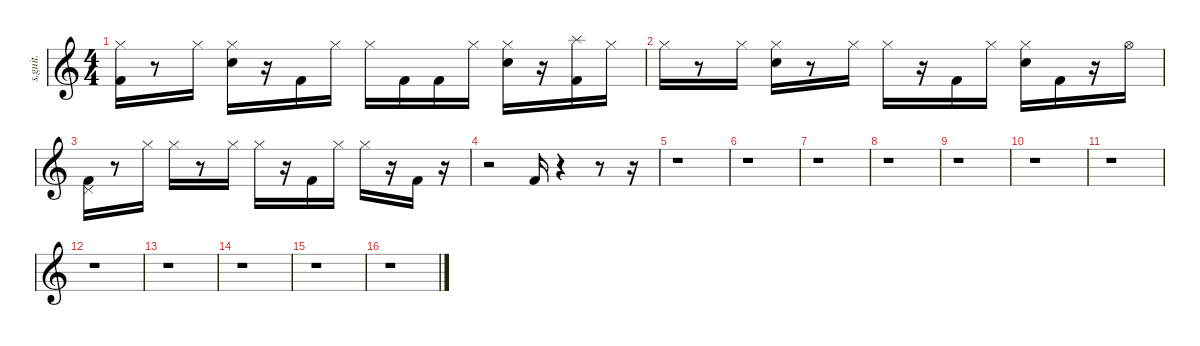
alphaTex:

\defaultSystemsLayout 4
\hideDynamics
\bracketExtendMode nobrackets
\track ("Drums" "s.guit.") {instrument percussion}
\staff {score}
\articulation defaults
\ts (4 4)
\tempo (130 hide)
\clef g2
\ks c
("Kick (hit) 2" "Hi-Hat (closed)").16{dy f} r.8 "Hi-Hat (closed)".16{dy mf} ("Electric Snare (hit)" "Hi-Hat (closed)").16{dy f} r.16 "Kick (hit) 2".16{dy mf} "Hi-Hat (closed)".16 "Hi-Hat (closed)".16{dy ff} "Kick (hit) 2".16{dy mf} "Kick (hit) 2".16{dy f} "Hi-Hat (closed)".16{dy mp} ("Electric Snare (hit)" "Hi-Hat (closed)").16{dy f} r.16 ("Splash (hit)" "Kick (hit) 2").16 "Hi-Hat (closed)".16{dy mp} |
"Hi-Hat (closed)".16{dy ff} r.8 "Hi-Hat (closed)".16{dy mp} ("Hi-Hat (closed)" "Electric Snare (hit)").16{dy ff} r.8 "Hi-Hat (closed)".16{dy mf} "Hi-Hat (closed)".16{dy ff} r.16 "Kick (hit) 2".16{dy f} "Hi-Hat (closed)".16{dy mf} ("Hi-Hat (closed)" "Electric Snare (hit)").16{dy ff} "Kick (hit) 2".16{dy f} r.16 "Hi-Hat (open)".16 |
("Kick (hit) 2" "Pedal Hi-Hat (hit)").16 r.8 "Hi-Hat (closed)".16{dy mp} "Hi-Hat (closed)".16{dy ff} r.8 "Hi-Hat (closed)".16{dy mp} "Hi-Hat (closed)".16{dy ff} r.16 "Kick (hit) 2".16{dy f} "Hi-Hat (closed)".16{dy mp} "Hi-Hat (closed)".16{dy ff} r.16 "Kick (hit) 2".16{dy f} r.16 |
r.2 "Kick (hit) 2".16 r.4 r.8 r.16 |
r.1 |
r.1 |
r.1 |
r.1 |
r.1 |
r.1 |
r.1 |
r.1 |
r.1 |
r.1 |
r.1 |
r.1
